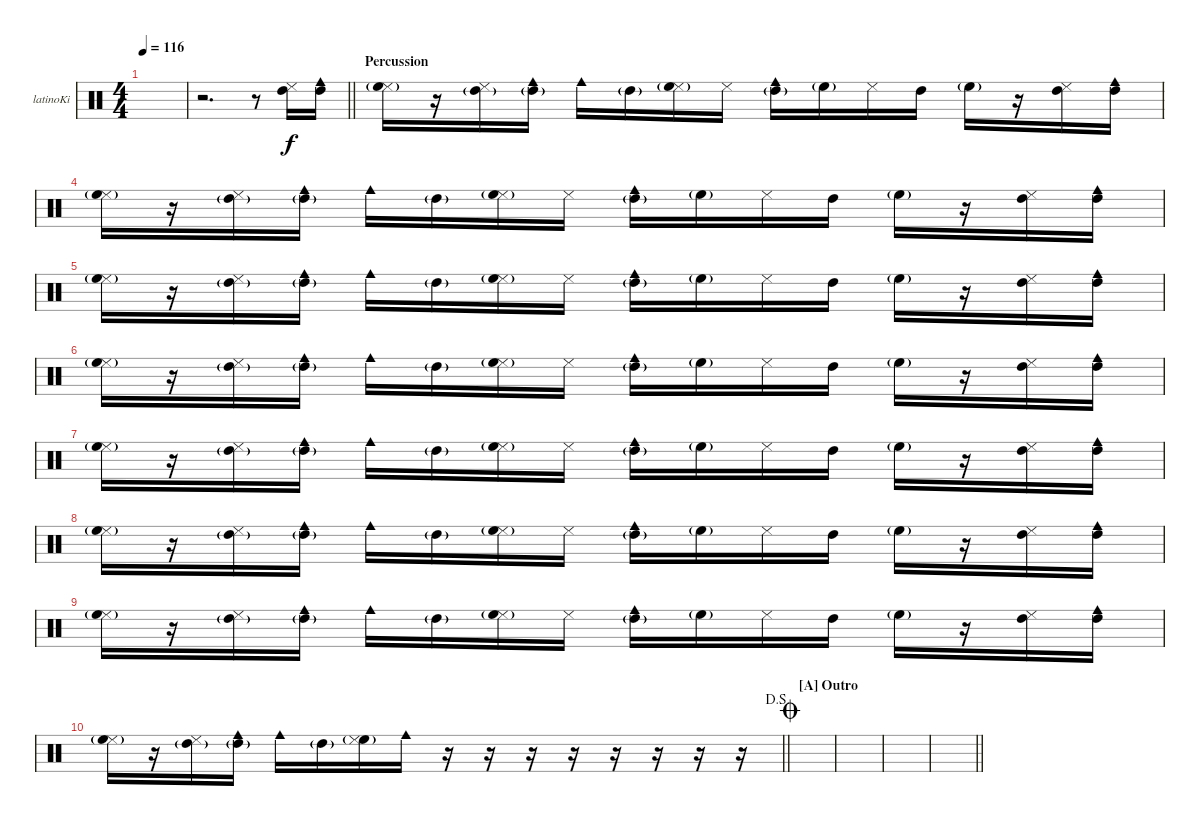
\bracketExtendMode nobrackets
\firstSystemTrackNameOrientation horizontal
\otherSystemsTrackNameOrientation horizontal
\defaultBarNumberDisplay FirstOfSystem
\track ("Kit-Latino" "latinoKi") {instrument percussion}
\staff {score}
\articulation defaults
\ts (4 4)
\tempo 116
\clef neutral
\ks c
|
\barLineRight lightlight
r.2{d} r.8 ("High Tom (hit)" "Cowbell low (tip)").16 ("High Tom (hit)" "Cowbell medium (hit)").16 |
\section ("" "Percussion")
("Cowbell low (tip)" "High Floor Tom (hit)"{g}).16 r.16 ("High Tom (hit)"{g} "Cowbell low (tip)").16 ("High Tom (hit)"{g} "Cowbell medium (hit)").16 "Cowbell medium (hit)".16 "High Tom (hit)"{g}.16 ("Cowbell low (tip)" "High Floor Tom (hit)"{g}).16 "Cowbell low (tip)".16 ("High Tom (hit)"{g} "Cowbell medium (hit)").16 "High Floor Tom (hit)"{g}.16 "Cowbell low (tip)".16 "High Tom (hit)".16 "High Floor Tom (hit)"{g}.16 r.16 ("High Tom (hit)" "Cowbell low (tip)").16 ("High Tom (hit)" "Cowbell medium (hit)").16 |
("Cowbell low (tip)" "High Floor Tom (hit)"{g}).16 r.16 ("High Tom (hit)"{g} "Cowbell low (tip)").16 ("High Tom (hit)"{g} "Cowbell medium (hit)").16 "Cowbell medium (hit)".16 "High Tom (hit)"{g}.16 ("Cowbell low (tip)" "High Floor Tom (hit)"{g}).16 "Cowbell low (tip)".16 ("High Tom (hit)"{g} "Cowbell medium (hit)").16 "High Floor Tom (hit)"{g}.16 "Cowbell low (tip)".16 "High Tom (hit)".16 "High Floor Tom (hit)"{g}.16 r.16 ("High Tom (hit)" "Cowbell low (tip)").16 ("High Tom (hit)" "Cowbell medium (hit)").16 |
("Cowbell low (tip)" "High Floor Tom (hit)"{g}).16 r.16 ("High Tom (hit)"{g} "Cowbell low (tip)").16 ("High Tom (hit)"{g} "Cowbell medium (hit)").16 "Cowbell medium (hit)".16 "High Tom (hit)"{g}.16 ("Cowbell low (tip)" "High Floor Tom (hit)"{g}).16 "Cowbell low (tip)".16 ("High Tom (hit)"{g} "Cowbell medium (hit)").16 "High Floor Tom (hit)"{g}.16 "Cowbell low (tip)".16 "High Tom (hit)".16 "High Floor Tom (hit)"{g}.16 r.16 ("High Tom (hit)" "Cowbell low (tip)").16 ("High Tom (hit)" "Cowbell medium (hit)").16 |
("Cowbell low (tip)" "High Floor Tom (hit)"{g}).16 r.16 ("High Tom (hit)"{g} "Cowbell low (tip)").16 ("High Tom (hit)"{g} "Cowbell medium (hit)").16 "Cowbell medium (hit)".16 "High Tom (hit)"{g}.16 ("Cowbell low (tip)" "High Floor Tom (hit)"{g}).16 "Cowbell low (tip)".16 ("High Tom (hit)"{g} "Cowbell medium (hit)").16 "High Floor Tom (hit)"{g}.16 "Cowbell low (tip)".16 "High Tom (hit)".16 "High Floor Tom (hit)"{g}.16 r.16 ("High Tom (hit)" "Cowbell low (tip)").16 ("High Tom (hit)" "Cowbell medium (hit)").16 |
("Cowbell low (tip)" "High Floor Tom (hit)"{g}).16 r.16 ("High Tom (hit)"{g} "Cowbell low (tip)").16 ("High Tom (hit)"{g} "Cowbell medium (hit)").16 "Cowbell medium (hit)".16 "High Tom (hit)"{g}.16 ("Cowbell low (tip)" "High Floor Tom (hit)"{g}).16 "Cowbell low (tip)".16 ("High Tom (hit)"{g} "Cowbell medium (hit)").16 "High Floor Tom (hit)"{g}.16 "Cowbell low (tip)".16 "High Tom (hit)".16 "High Floor Tom (hit)"{g}.16 r.16 ("High Tom (hit)" "Cowbell low (tip)").16 ("High Tom (hit)" "Cowbell medium (hit)").16 |
("Cowbell low (tip)" "High Floor Tom (hit)"{g}).16 r.16 ("High Tom (hit)"{g} "Cowbell low (tip)").16 ("High Tom (hit)"{g} "Cowbell medium (hit)").16 "Cowbell medium (hit)".16 "High Tom (hit)"{g}.16 ("Cowbell low (tip)" "High Floor Tom (hit)"{g}).16 "Cowbell low (tip)".16 ("High Tom (hit)"{g} "Cowbell medium (hit)").16 "High Floor Tom (hit)"{g}.16 "Cowbell low (tip)".16 "High Tom (hit)".16 "High Floor Tom (hit)"{g}.16 r.16 ("High Tom (hit)" "Cowbell low (tip)").16 ("High Tom (hit)" "Cowbell medium (hit)").16 |
("Cowbell low (tip)" "High Floor Tom (hit)"{g}).16 r.16 ("High Tom (hit)"{g} "Cowbell low (tip)").16 ("High Tom (hit)"{g} "Cowbell medium (hit)").16 "Cowbell medium (hit)".16 "High Tom (hit)"{g}.16 ("Cowbell low (tip)" "High Floor Tom (hit)"{g}).16 "Cowbell low (tip)".16 ("High Tom (hit)"{g} "Cowbell medium (hit)").16 "High Floor Tom (hit)"{g}.16 "Cowbell low (tip)".16 "High Tom (hit)".16 "High Floor Tom (hit)"{g}.16 r.16 ("High Tom (hit)" "Cowbell low (tip)").16 ("High Tom (hit)" "Cowbell medium (hit)").16 |
\jump dalsegno
\barLineRight lightlight
("Cowbell low (tip)" "High Floor Tom (hit)"{g}).16 r.16 ("High Tom (hit)"{g} "Cowbell low (tip)").16 ("High Tom (hit)"{g} "Cowbell medium (hit)").16 "Cowbell medium (hit)".16 "High Tom (hit)"{g}.16 ("High Floor Tom (hit)"{g} "Cowbell low (tip)").16 "Cowbell medium (hit)".16 r.16 r.16 r.16 r.16 r.16 r.16 r.16 r.16 |
\section ("A" "Outro")
\jump coda
|
|
|
\barLineRight lightlight
